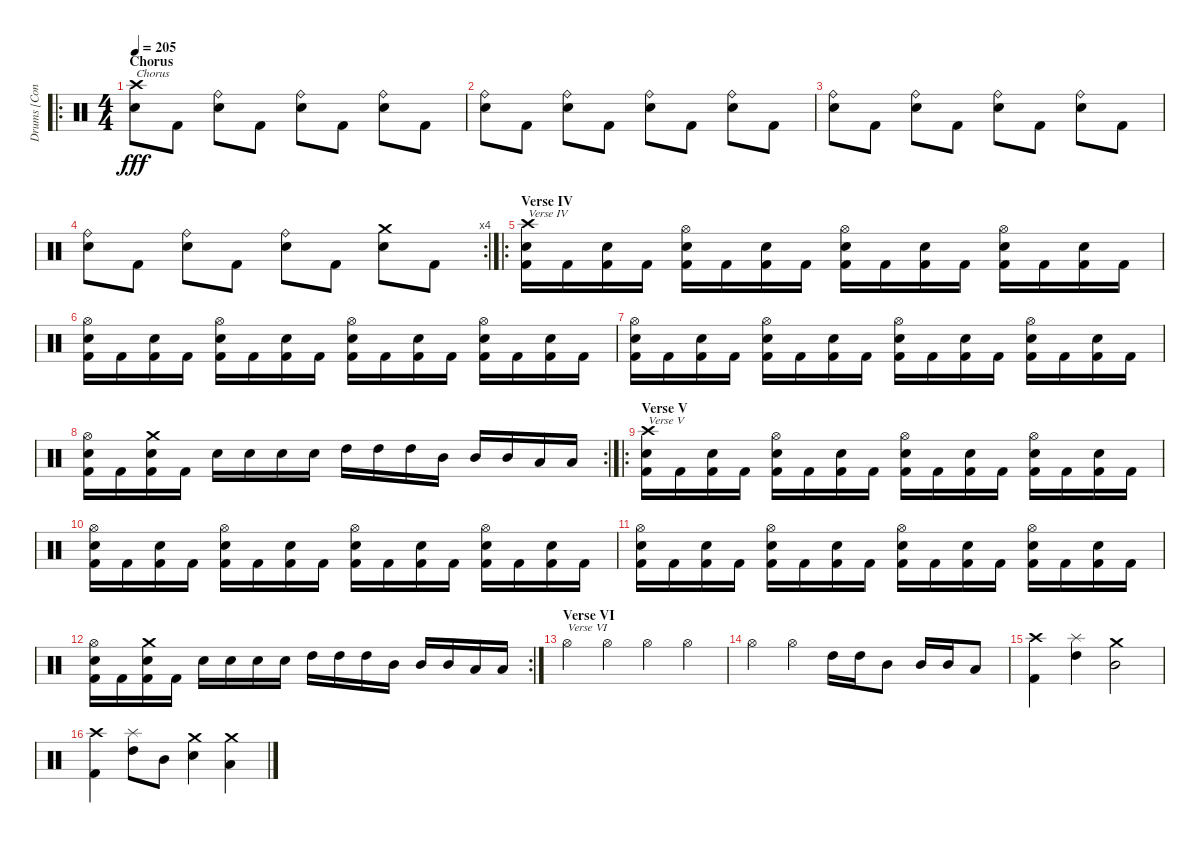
\track ("Drums [Conny Peterson]" "Drums [Con") {instrument percussion}
\staff {score}
\articulation defaults
\ro
\ts (4 4)
\section ("" "Chorus")
\tempo 205
\clef neutral
\ks c
("Crash high (hit)" "Electric Snare (hit)").8{txt "Chorus" dy fff} "Kick (hit) 2".8 ("Ride (bell)" "Electric Snare (hit)").8 "Kick (hit) 2".8 ("Ride (bell)" "Electric Snare (hit)").8 "Kick (hit) 2".8 ("Ride (bell)" "Electric Snare (hit)").8 "Kick (hit) 2".8 |
("Ride (bell)" "Electric Snare (hit)").8 "Kick (hit) 2".8 ("Ride (bell)" "Electric Snare (hit)").8 "Kick (hit) 2".8 ("Ride (bell)" "Electric Snare (hit)").8 "Kick (hit) 2".8 ("Ride (bell)" "Electric Snare (hit)").8 "Kick (hit) 2".8 |
("Ride (bell)" "Electric Snare (hit)").8 "Kick (hit) 2".8 ("Ride (bell)" "Electric Snare (hit)").8 "Kick (hit) 2".8 ("Ride (bell)" "Electric Snare (hit)").8 "Kick (hit) 2".8 ("Ride (bell)" "Electric Snare (hit)").8 "Kick (hit) 2".8 |
\rc 4
("Ride (bell)" "Electric Snare (hit)").8 "Kick (hit) 2".8 ("Ride (bell)" "Electric Snare (hit)").8 "Kick (hit) 2".8 ("Ride (bell)" "Electric Snare (hit)").8 "Kick (hit) 2".8 ("Crash medium (hit)" "Electric Snare (hit)").8 "Kick (hit) 2".8 |
\ro
\section ("" "Verse IV")
("Crash high (hit)" "Electric Snare (hit)" "Kick (hit) 2").16{txt "Verse IV"} "Kick (hit) 2".16 ("Electric Snare (hit)" "Kick (hit) 2").16 "Kick (hit) 2".16 ("Hi-Hat (open)" "Electric Snare (hit)" "Kick (hit) 2").16 "Kick (hit) 2".16 ("Electric Snare (hit)" "Kick (hit) 2").16 "Kick (hit) 2".16 ("Hi-Hat (open)" "Electric Snare (hit)" "Kick (hit) 2").16 "Kick (hit) 2".16 ("Electric Snare (hit)" "Kick (hit) 2").16 "Kick (hit) 2".16 ("Hi-Hat (open)" "Electric Snare (hit)" "Kick (hit) 2").16 "Kick (hit) 2".16 ("Electric Snare (hit)" "Kick (hit) 2").16 "Kick (hit) 2".16 |
("Hi-Hat (open)" "Electric Snare (hit)" "Kick (hit) 2").16 "Kick (hit) 2".16 ("Electric Snare (hit)" "Kick (hit) 2").16 "Kick (hit) 2".16 ("Hi-Hat (open)" "Electric Snare (hit)" "Kick (hit) 2").16 "Kick (hit) 2".16 ("Electric Snare (hit)" "Kick (hit) 2").16 "Kick (hit) 2".16 ("Hi-Hat (open)" "Electric Snare (hit)" "Kick (hit) 2").16 "Kick (hit) 2".16 ("Electric Snare (hit)" "Kick (hit) 2").16 "Kick (hit) 2".16 ("Hi-Hat (open)" "Electric Snare (hit)" "Kick (hit) 2").16 "Kick (hit) 2".16 ("Electric Snare (hit)" "Kick (hit) 2").16 "Kick (hit) 2".16 |
("Hi-Hat (open)" "Electric Snare (hit)" "Kick (hit) 2").16 "Kick (hit) 2".16 ("Electric Snare (hit)" "Kick (hit) 2").16 "Kick (hit) 2".16 ("Hi-Hat (open)" "Electric Snare (hit)" "Kick (hit) 2").16 "Kick (hit) 2".16 ("Electric Snare (hit)" "Kick (hit) 2").16 "Kick (hit) 2".16 ("Hi-Hat (open)" "Electric Snare (hit)" "Kick (hit) 2").16 "Kick (hit) 2".16 ("Electric Snare (hit)" "Kick (hit) 2").16 "Kick (hit) 2".16 ("Hi-Hat (open)" "Electric Snare (hit)" "Kick (hit) 2").16 "Kick (hit) 2".16 ("Electric Snare (hit)" "Kick (hit) 2").16 "Kick (hit) 2".16 |
\rc 2
("Hi-Hat (open)" "Electric Snare (hit)" "Kick (hit) 2").16 "Kick (hit) 2".16 ("Crash medium (hit)" "Electric Snare (hit)" "Kick (hit) 2").16 "Kick (hit) 2".16 "Electric Snare (hit)".16 "Electric Snare (hit)".16 "Electric Snare (hit)".16 "Electric Snare (hit)".16 "High Tom (hit)".16 "High Tom (hit)".16 "High Tom (hit)".16 "Mid Tom (hit)".16 "Mid Tom (hit)".16 "Mid Tom (hit)".16 "Low Tom (hit)".16 "Low Tom (hit)".16 |
\ro
\section ("" "Verse V")
("Crash high (hit)" "Electric Snare (hit)" "Kick (hit) 2").16{txt "Verse V"} "Kick (hit) 2".16 ("Electric Snare (hit)" "Kick (hit) 2").16 "Kick (hit) 2".16 ("Hi-Hat (open)" "Electric Snare (hit)" "Kick (hit) 2").16 "Kick (hit) 2".16 ("Electric Snare (hit)" "Kick (hit) 2").16 "Kick (hit) 2".16 ("Hi-Hat (open)" "Electric Snare (hit)" "Kick (hit) 2").16 "Kick (hit) 2".16 ("Electric Snare (hit)" "Kick (hit) 2").16 "Kick (hit) 2".16 ("Hi-Hat (open)" "Electric Snare (hit)" "Kick (hit) 2").16 "Kick (hit) 2".16 ("Electric Snare (hit)" "Kick (hit) 2").16 "Kick (hit) 2".16 |
("Hi-Hat (open)" "Electric Snare (hit)" "Kick (hit) 2").16 "Kick (hit) 2".16 ("Electric Snare (hit)" "Kick (hit) 2").16 "Kick (hit) 2".16 ("Hi-Hat (open)" "Electric Snare (hit)" "Kick (hit) 2").16 "Kick (hit) 2".16 ("Electric Snare (hit)" "Kick (hit) 2").16 "Kick (hit) 2".16 ("Hi-Hat (open)" "Electric Snare (hit)" "Kick (hit) 2").16 "Kick (hit) 2".16 ("Electric Snare (hit)" "Kick (hit) 2").16 "Kick (hit) 2".16 ("Hi-Hat (open)" "Electric Snare (hit)" "Kick (hit) 2").16 "Kick (hit) 2".16 ("Electric Snare (hit)" "Kick (hit) 2").16 "Kick (hit) 2".16 |
("Hi-Hat (open)" "Electric Snare (hit)" "Kick (hit) 2").16 "Kick (hit) 2".16 ("Electric Snare (hit)" "Kick (hit) 2").16 "Kick (hit) 2".16 ("Hi-Hat (open)" "Electric Snare (hit)" "Kick (hit) 2").16 "Kick (hit) 2".16 ("Electric Snare (hit)" "Kick (hit) 2").16 "Kick (hit) 2".16 ("Hi-Hat (open)" "Electric Snare (hit)" "Kick (hit) 2").16 "Kick (hit) 2".16 ("Electric Snare (hit)" "Kick (hit) 2").16 "Kick (hit) 2".16 ("Hi-Hat (open)" "Electric Snare (hit)" "Kick (hit) 2").16 "Kick (hit) 2".16 ("Electric Snare (hit)" "Kick (hit) 2").16 "Kick (hit) 2".16 |
\rc 2
("Hi-Hat (open)" "Electric Snare (hit)" "Kick (hit) 2").16 "Kick (hit) 2".16 ("Crash medium (hit)" "Electric Snare (hit)" "Kick (hit) 2").16 "Kick (hit) 2".16 "Electric Snare (hit)".16 "Electric Snare (hit)".16 "Electric Snare (hit)".16 "Electric Snare (hit)".16 "High Tom (hit)".16 "High Tom (hit)".16 "High Tom (hit)".16 "Mid Tom (hit)".16 "Mid Tom (hit)".16 "Mid Tom (hit)".16 "Low Tom (hit)".16 "Low Tom (hit)".16 |
\section ("" "Verse VI")
"Hi-Hat (open)".4{txt "Verse VI"} "Hi-Hat (open)".4 "Hi-Hat (open)".4 "Hi-Hat (open)".4 |
"Hi-Hat (open)".4 "Hi-Hat (open)".4 "High Tom (hit)".16 "High Tom (hit)".16 "Mid Tom (hit)".8 "Mid Tom (hit)".16 "Mid Tom (hit)".16 "Low Tom (hit)".8 |
("Crash high (hit)" "Kick (hit) 2").4 ("Splash (hit)" "High Tom (hit)").4 ("Crash medium (hit)" "Mid Tom (hit)").2 |
("Crash high (hit)" "Kick (hit) 2").4 ("Splash (hit)" "High Tom (hit)").8 "Mid Tom (hit)".8 ("Crash medium (hit)" "Electric Snare (hit)").4 ("Crash medium (hit)" "Low Tom (hit)").4
